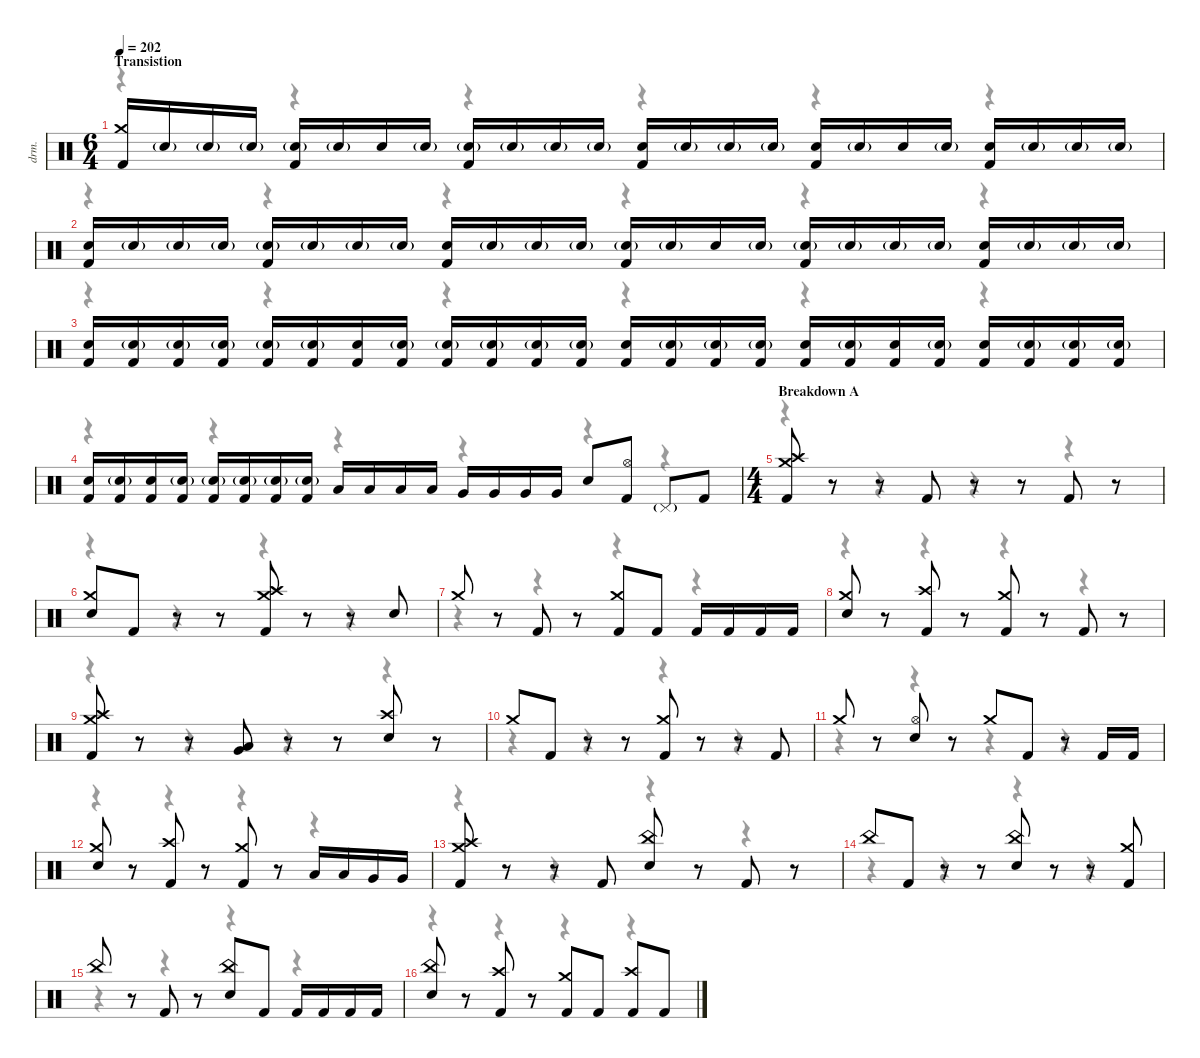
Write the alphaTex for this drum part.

\defaultSystemsLayout 4
\hideDynamics
\bracketExtendMode nobrackets
\track ("Alex Ballew" "drm.") {instrument percussion}
\staff {score}
\articulation defaults
\voice
\ts (6 4)
\section ("" "Transistion")
\tempo 202
\clef neutral
\ks c
("Crash medium (hit)" "Kick (hit) 2").16{dy f beam Up} "Snare (hit) 2"{g}.16{dy mf beam Up} "Snare (hit) 2"{g}.16{beam Up} "Snare (hit) 2"{g}.16{beam Up} ("Snare (hit) 2"{g} "Kick (hit) 2").16{dy f beam Up} "Snare (hit) 2"{g}.16{dy mf beam Up} "Snare (hit) 2".16{dy f beam Up} "Snare (hit) 2"{g}.16{dy mf beam Up} ("Snare (hit) 2"{g} "Kick (hit) 2").16{dy f beam Up} "Snare (hit) 2"{g}.16{dy mf beam Up} "Snare (hit) 2"{g}.16{beam Up} "Snare (hit) 2"{g}.16{beam Up} ("Snare (hit) 2" "Kick (hit) 2").16{dy f beam Up} "Snare (hit) 2"{g}.16{dy mf beam Up} "Snare (hit) 2"{g}.16{beam Up} "Snare (hit) 2"{g}.16{beam Up} ("Snare (hit) 2" "Kick (hit) 2").16{dy f beam Up} "Snare (hit) 2"{g}.16{dy mf beam Up} "Snare (hit) 2".16{dy f beam Up} "Snare (hit) 2"{g}.16{dy mf beam Up} ("Snare (hit) 2" "Kick (hit) 2").16{dy f beam Up} "Snare (hit) 2"{g}.16{dy mf beam Up} "Snare (hit) 2"{g}.16{beam Up} "Snare (hit) 2"{g}.16{beam Up} |
("Snare (hit) 2" "Kick (hit) 2").16{dy f beam Up} "Snare (hit) 2"{g}.16{dy mf beam Up} "Snare (hit) 2"{g}.16{beam Up} "Snare (hit) 2"{g}.16{beam Up} ("Snare (hit) 2"{g} "Kick (hit) 2").16{dy f beam Up} "Snare (hit) 2"{g}.16{dy mf beam Up} "Snare (hit) 2"{g}.16{beam Up} "Snare (hit) 2"{g}.16{beam Up} ("Snare (hit) 2" "Kick (hit) 2").16{dy f beam Up} "Snare (hit) 2"{g}.16{dy mf beam Up} "Snare (hit) 2"{g}.16{beam Up} "Snare (hit) 2"{g}.16{beam Up} ("Snare (hit) 2"{g} "Kick (hit) 2").16{dy f beam Up} "Snare (hit) 2"{g}.16{dy mf beam Up} "Snare (hit) 2".16{dy f beam Up} "Snare (hit) 2"{g}.16{dy mf beam Up} ("Snare (hit) 2"{g} "Kick (hit) 2").16{dy f beam Up} "Snare (hit) 2"{g}.16{dy mf beam Up} "Snare (hit) 2"{g}.16{beam Up} "Snare (hit) 2"{g}.16{beam Up} ("Snare (hit) 2" "Kick (hit) 2").16{dy f beam Up} "Snare (hit) 2"{g}.16{dy mf beam Up} "Snare (hit) 2"{g}.16{beam Up} "Snare (hit) 2"{g}.16{beam Up} |
("Snare (hit) 2" "Kick (hit) 2").16{dy f beam Up} ("Snare (hit) 2"{g} "Kick (hit) 2").16{beam Up} ("Snare (hit) 2"{g} "Kick (hit) 2").16{beam Up} ("Snare (hit) 2"{g} "Kick (hit) 2").16{beam Up} ("Snare (hit) 2"{g} "Kick (hit) 2").16{beam Up} ("Snare (hit) 2"{g} "Kick (hit) 2").16{beam Up} ("Snare (hit) 2" "Kick (hit) 2").16{beam Up} ("Snare (hit) 2"{g} "Kick (hit) 2").16{beam Up} ("Snare (hit) 2"{g} "Kick (hit) 2").16{beam Up} ("Snare (hit) 2"{g} "Kick (hit) 2").16{beam Up} ("Snare (hit) 2"{g} "Kick (hit) 2").16{beam Up} ("Snare (hit) 2"{g} "Kick (hit) 2").16{beam Up} ("Snare (hit) 2" "Kick (hit) 2").16{beam Up} ("Snare (hit) 2"{g} "Kick (hit) 2").16{beam Up} ("Snare (hit) 2"{g} "Kick (hit) 2").16{beam Up} ("Snare (hit) 2"{g} "Kick (hit) 2").16{beam Up} ("Snare (hit) 2" "Kick (hit) 2").16{beam Up} ("Snare (hit) 2"{g} "Kick (hit) 2").16{beam Up} ("Snare (hit) 2" "Kick (hit) 2").16{beam Up} ("Snare (hit) 2"{g} "Kick (hit) 2").16{beam Up} ("Snare (hit) 2" "Kick (hit) 2").16{beam Up} ("Snare (hit) 2"{g} "Kick (hit) 2").16{beam Up} ("Snare (hit) 2"{g} "Kick (hit) 2").16{beam Up} ("Snare (hit) 2"{g} "Kick (hit) 2").16{beam Up} |
("Snare (hit) 2" "Kick (hit) 2").16{beam Up} ("Snare (hit) 2"{g} "Kick (hit) 2").16{beam Up} ("Snare (hit) 2" "Kick (hit) 2").16{beam Up} ("Snare (hit) 2"{g} "Kick (hit) 2").16{beam Up} ("Snare (hit) 2"{g} "Kick (hit) 2").16{beam Up} ("Snare (hit) 2"{g} "Kick (hit) 2").16{beam Up} ("Snare (hit) 2"{g} "Kick (hit) 2").16{beam Up} ("Snare (hit) 2"{g} "Kick (hit) 2").16{beam Up} "Low Tom (hit)".16{beam Up} "Low Tom (hit)".16{beam Up} "Low Tom (hit)".16{beam Up} "Low Tom (hit)".16{beam Up} "Very Low Tom (hit)".16{beam Up} "Very Low Tom (hit)".16{beam Up} "Very Low Tom (hit)".16{beam Up} "Very Low Tom (hit)".16{beam Up} "Snare (hit) 2".8{beam Up} ("Hi-Hat (open)" "Kick (hit) 2").8{beam Up} "Pedal Hi-Hat (hit)"{g}.8{dy mf beam Up} "Kick (hit) 2".8{dy f beam Up} |
\ts (4 4)
\beaming (8 2 2 2 2)
\section ("" "Breakdown A")
("Crash medium (hit)" "Crash high (hit)" "Kick (hit) 2").8{beam Up} r.8{beam Up} r.8{beam Up} "Kick (hit) 2".8{beam Up} r.8{beam Up} r.8{beam Up} "Kick (hit) 2".8{beam Up} r.8{beam Up} |
("Crash medium (hit)" "Snare (hit) 2").8{beam Up} "Kick (hit) 2".8{beam Up} r.8{beam Up} r.8{beam Up} ("Crash medium (hit)" "Crash high (hit)" "Kick (hit) 2").8{beam Up} r.8{beam Up} r.8{beam Up} "Snare (hit) 2".8{beam Up} |
"Crash medium (hit)".8{beam Up} r.8{beam Up} "Kick (hit) 2".8{beam Up} r.8{beam Up} ("Crash medium (hit)" "Kick (hit) 2").8{beam Up} "Kick (hit) 2".8{beam Up} "Kick (hit) 2".16{beam Up} "Kick (hit) 2".16{beam Up} "Kick (hit) 2".16{beam Up} "Kick (hit) 2".16{beam Up} |
("Crash medium (hit)" "Snare (hit) 2").8{beam Up} r.8{beam Up} ("Crash high (hit)" "Kick (hit) 2").8{beam Up} r.8{beam Up} ("Crash medium (hit)" "Kick (hit) 2").8{beam Up} r.8{beam Up} "Kick (hit) 2".8{beam Up} r.8{beam Up} |
("Crash medium (hit)" "Crash high (hit)" "Kick (hit) 2").8{beam Up} r.8{beam Up} r.8{beam Up} ("Low Tom (hit)" "Very Low Tom (hit)").8{beam Up} r.8{beam Up} r.8{beam Up} ("Crash high (hit)" "Snare (hit) 2").8{beam Up} r.8{beam Up} |
"Crash medium (hit)".8{beam Up} "Kick (hit) 2".8{beam Up} r.8{beam Up} r.8{beam Up} ("Crash medium (hit)" "Kick (hit) 2").8{beam Up} r.8{beam Up} r.8{beam Up} "Kick (hit) 2".8{beam Up} |
"Crash medium (hit)".8{beam Up} r.8{beam Up} ("Hi-Hat (open)" "Snare (hit) 2").8{beam Up} r.8{beam Up} "Crash medium (hit)".8{beam Up} "Kick (hit) 2".8{beam Up} r.8{beam Up} "Kick (hit) 2".16{beam Up} "Kick (hit) 2".16{beam Up} |
("Crash medium (hit)" "Snare (hit) 2").8{beam Up} r.8{beam Up} ("Crash high (hit)" "Kick (hit) 2").8{beam Up} r.8{beam Up} ("Crash medium (hit)" "Kick (hit) 2").8{beam Up} r.8{beam Up} "Low Tom (hit)".16{beam Up} "Low Tom (hit)".16{beam Up} "Very Low Tom (hit)".16{beam Up} "Very Low Tom (hit)".16{beam Up} |
("Crash medium (hit)" "Crash high (hit)" "Kick (hit) 2").8{beam Up} r.8{beam Up} r.8{beam Up} "Kick (hit) 2".8{beam Up} ("China (hit)" "Snare (hit) 2").8{beam Up} r.8{beam Up} "Kick (hit) 2".8{beam Up} r.8{beam Up} |
"China (hit)".8{beam Up} "Kick (hit) 2".8{beam Up} r.8{beam Up} r.8{beam Up} ("China (hit)" "Snare (hit) 2").8{beam Up} r.8{beam Up} r.8{beam Up} ("Crash medium (hit)" "Kick (hit) 2").8{beam Up} |
"China (hit)".8{beam Up} r.8{beam Up} "Kick (hit) 2".8{beam Up} r.8{beam Up} ("China (hit)" "Snare (hit) 2").8{beam Up} "Kick (hit) 2".8{beam Up} "Kick (hit) 2".16{beam Up} "Kick (hit) 2".16{beam Up} "Kick (hit) 2".16{beam Up} "Kick (hit) 2".16{beam Up} |
("China (hit)" "Snare (hit) 2").8{beam Up} r.8{beam Up} ("Crash high (hit)" "Kick (hit) 2").8{beam Up} r.8{beam Up} ("Crash medium (hit)" "Kick (hit) 2").8{beam Up} "Kick (hit) 2".8{beam Up} ("Crash high (hit)" "Kick (hit) 2").8{beam Up} "Kick (hit) 2".8{beam Up}
\voice
\clef neutral
\ottava regular
\simile none
\ks c
r.4{dy mf beam Down} r.4{beam Down} r.4{beam Down} r.4{beam Down} r.4{beam Down} r.4{beam Down} |
r.4{beam Down} r.4{beam Down} r.4{beam Down} r.4{beam Down} r.4{beam Down} r.4{beam Down} |
r.4{beam Down} r.4{beam Down} r.4{beam Down} r.4{beam Down} r.4{beam Down} r.4{beam Down} |
r.4{beam Down} r.4{beam Down} r.4{beam Down} r.4{beam Down} r.4{beam Down} r.4{beam Down} |
r.4{beam Down} r.4{beam Down} r.4{beam Down} r.4{beam Down} |
r.4{beam Down} r.4{beam Down} r.4{beam Down} r.4{beam Down} |
r.4{beam Down} r.4{beam Down} r.4{beam Down} r.4{beam Down} |
r.4{beam Down} r.4{beam Down} r.4{beam Down} r.4{beam Down} |
r.4{beam Down} r.4{beam Down} r.4{beam Down} r.4{beam Down} |
r.4{beam Down} r.4{beam Down} r.4{beam Down} r.4{beam Down} |
r.4{beam Down} r.4{beam Down} r.4{beam Down} r.4{beam Down} |
r.4{beam Down} r.4{beam Down} r.4{beam Down} r.4{beam Down} |
r.4{beam Down} r.4{beam Down} r.4{beam Down} r.4{beam Down} |
r.4{beam Down} r.4{beam Down} r.4{beam Down} r.4{beam Down} |
r.4{beam Down} r.4{beam Down} r.4{beam Down} r.4{beam Down} |
r.4{beam Down} r.4{beam Down} r.4{beam Down} r.4{beam Down}
